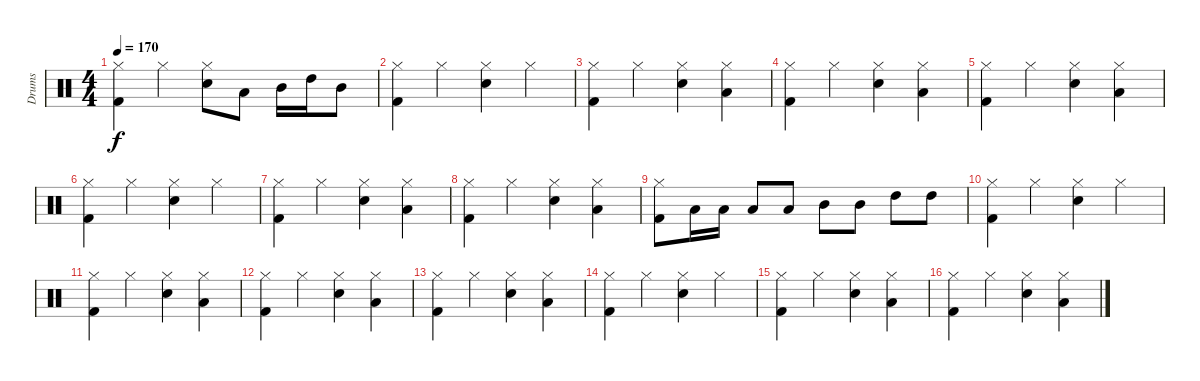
\track ("Drums" "Drums") {instrument percussion}
\staff {score}
\articulation defaults
\ts (4 4)
\tempo 170
\clef neutral
\ks c
("Kick (hit) 2" "Hi-Hat (closed)").4{dy f} "Hi-Hat (closed)".4 ("Snare (hit) 2" "Hi-Hat (closed)").8 "Low Tom (hit)".8 "Mid Tom (hit)".16 "High Tom (hit)".16 "Mid Tom (hit)".8 |
("Kick (hit) 2" "Hi-Hat (closed)").4 "Hi-Hat (closed)".4 ("Snare (hit) 2" "Hi-Hat (closed)").4 "Hi-Hat (closed)".4 |
("Kick (hit) 2" "Hi-Hat (closed)").4 "Hi-Hat (closed)".4 ("Snare (hit) 2" "Hi-Hat (closed)").4 ("Low Tom (hit)" "Hi-Hat (closed)").4 |
("Kick (hit) 2" "Hi-Hat (closed)").4 "Hi-Hat (closed)".4 ("Snare (hit) 2" "Hi-Hat (closed)").4 ("Low Tom (hit)" "Hi-Hat (closed)").4 |
("Kick (hit) 2" "Hi-Hat (closed)").4 "Hi-Hat (closed)".4 ("Snare (hit) 2" "Hi-Hat (closed)").4 ("Low Tom (hit)" "Hi-Hat (closed)").4 |
("Kick (hit) 2" "Hi-Hat (closed)").4 "Hi-Hat (closed)".4 ("Snare (hit) 2" "Hi-Hat (closed)").4 "Hi-Hat (closed)".4 |
("Kick (hit) 2" "Hi-Hat (closed)").4 "Hi-Hat (closed)".4 ("Snare (hit) 2" "Hi-Hat (closed)").4 ("Low Tom (hit)" "Hi-Hat (closed)").4 |
("Kick (hit) 2" "Hi-Hat (closed)").4 "Hi-Hat (closed)".4 ("Snare (hit) 2" "Hi-Hat (closed)").4 ("Low Tom (hit)" "Hi-Hat (closed)").4 |
("Kick (hit) 2" "Hi-Hat (closed)").8 "Low Tom (hit)".16 "Low Tom (hit)".16 "Low Tom (hit)".8 "Low Tom (hit)".8 "Mid Tom (hit)".8 "Mid Tom (hit)".8 "High Tom (hit)".8 "High Tom (hit)".8 |
("Kick (hit) 2" "Hi-Hat (closed)").4 "Hi-Hat (closed)".4 ("Snare (hit) 2" "Hi-Hat (closed)").4 "Hi-Hat (closed)".4 |
("Kick (hit) 2" "Hi-Hat (closed)").4 "Hi-Hat (closed)".4 ("Snare (hit) 2" "Hi-Hat (closed)").4 ("Low Tom (hit)" "Hi-Hat (closed)").4 |
("Kick (hit) 2" "Hi-Hat (closed)").4 "Hi-Hat (closed)".4 ("Snare (hit) 2" "Hi-Hat (closed)").4 ("Low Tom (hit)" "Hi-Hat (closed)").4 |
("Kick (hit) 2" "Hi-Hat (closed)").4 "Hi-Hat (closed)".4 ("Snare (hit) 2" "Hi-Hat (closed)").4 ("Low Tom (hit)" "Hi-Hat (closed)").4 |
("Kick (hit) 2" "Hi-Hat (closed)").4 "Hi-Hat (closed)".4 ("Snare (hit) 2" "Hi-Hat (closed)").4 "Hi-Hat (closed)".4 |
("Kick (hit) 2" "Hi-Hat (closed)").4 "Hi-Hat (closed)".4 ("Snare (hit) 2" "Hi-Hat (closed)").4 ("Low Tom (hit)" "Hi-Hat (closed)").4 |
("Kick (hit) 2" "Hi-Hat (closed)").4 "Hi-Hat (closed)".4 ("Snare (hit) 2" "Hi-Hat (closed)").4 ("Low Tom (hit)" "Hi-Hat (closed)").4
